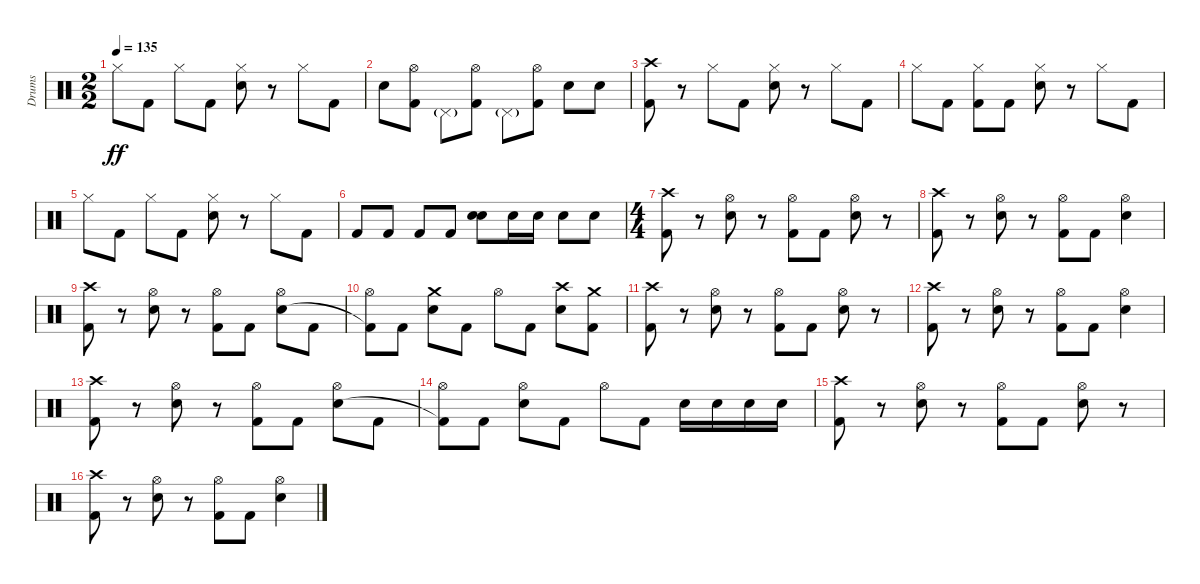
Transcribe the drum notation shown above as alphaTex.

\track ("Drums" "Drums") {instrument percussion}
\staff {score}
\articulation defaults
\ts (2 2)
\tempo 135
\clef neutral
\ks c "Hi-Hat (closed)".8{dy ff} "Kick (hit) 2".8 "Hi-Hat (closed)".8 "Kick (hit) 2".8
("Hi-Hat (closed)" "Snare (hit) 2").8 r.8 "Hi-Hat (closed)".8 "Kick (hit) 2".8 |
"Snare (hit) 2".8 ("Hi-Hat (open)" "Kick (hit) 2").8 "Pedal Hi-Hat (hit)"{g}.8 ("Hi-Hat (open)" "Kick (hit) 2").8 "Pedal Hi-Hat (hit)"{g}.8 ("Hi-Hat (open)" "Kick (hit) 2").8 "Snare (hit) 2".8 "Snare (hit) 2".8 |
("Crash high (hit)" "Kick (hit) 2").8 r.8 "Hi-Hat (closed)".8 "Kick (hit) 2".8 ("Hi-Hat (closed)" "Snare (hit) 2").8 r.8 "Hi-Hat (closed)".8 "Kick (hit) 2".8 |
"Hi-Hat (closed)".8 "Kick (hit) 2".8 ("Hi-Hat (closed)" "Kick (hit) 2").8 "Kick (hit) 2".8 ("Hi-Hat (closed)" "Snare (hit) 2").8 r.8 "Hi-Hat (closed)".8 "Kick (hit) 2".8 |
"Hi-Hat (closed)".8 "Kick (hit) 2".8 "Hi-Hat (closed)".8 "Kick (hit) 2".8 ("Hi-Hat (closed)" "Snare (hit) 2").8 r.8 "Hi-Hat (closed)".8 "Kick (hit) 2".8 |
"Kick (hit) 2".8 "Kick (hit) 2".8 "Kick (hit) 2".8 "Kick (hit) 2".8 ("Snare (hit) 2" "Snare (hit) 2").8{bd 480} "Snare (hit) 2".16 "Snare (hit) 2".16 "Snare (hit) 2".8 "Snare (hit) 2".8 |
\ts (4 4)
("Crash high (hit)" "Kick (hit) 2").8 r.8 ("Hi-Hat (open)" "Snare (hit) 2").8 r.8 ("Hi-Hat (open)" "Kick (hit) 2").8 "Kick (hit) 2".8 ("Hi-Hat (open)" "Snare (hit) 2").8 r.8 |
("Crash high (hit)" "Kick (hit) 2").8 r.8 ("Hi-Hat (open)" "Snare (hit) 2").8 r.8 ("Hi-Hat (open)" "Kick (hit) 2").8 "Kick (hit) 2".8 ("Hi-Hat (open)" "Snare (hit) 2").4 |
("Crash high (hit)" "Kick (hit) 2").8 r.8 ("Hi-Hat (open)" "Snare (hit) 2").8 r.8 ("Hi-Hat (open)" "Kick (hit) 2").8 "Kick (hit) 2".8 ("Hi-Hat (open)" "Snare (hit) 2").8 "Kick (hit) 2".8 |
("Hi-Hat (open)" "Kick (hit) 2"{t}).8 "Kick (hit) 2".8 ("Crash medium (hit)" "Snare (hit) 2").8 "Kick (hit) 2".8 "Hi-Hat (open)".8 "Kick (hit) 2".8 ("Crash high (hit)" "Snare (hit) 2").8 ("Crash medium (hit)" "Kick (hit) 2").8 |
("Crash high (hit)" "Kick (hit) 2").8 r.8 ("Hi-Hat (open)" "Snare (hit) 2").8 r.8 ("Hi-Hat (open)" "Kick (hit) 2").8 "Kick (hit) 2".8 ("Hi-Hat (open)" "Snare (hit) 2").8 r.8 |
("Crash high (hit)" "Kick (hit) 2").8 r.8 ("Hi-Hat (open)" "Snare (hit) 2").8 r.8 ("Hi-Hat (open)" "Kick (hit) 2").8 "Kick (hit) 2".8 ("Hi-Hat (open)" "Snare (hit) 2").4 |
("Crash high (hit)" "Kick (hit) 2").8 r.8 ("Hi-Hat (open)" "Snare (hit) 2").8 r.8 ("Hi-Hat (open)" "Kick (hit) 2").8 "Kick (hit) 2".8 ("Hi-Hat (open)" "Snare (hit) 2").8 "Kick (hit) 2".8 |
("Hi-Hat (open)" "Kick (hit) 2"{t}).8 "Kick (hit) 2".8 ("Hi-Hat (open)" "Snare (hit) 2").8 "Kick (hit) 2".8 "Hi-Hat (open)".8 "Kick (hit) 2".8 "Snare (hit) 2".16 "Snare (hit) 2".16 "Snare (hit) 2".16 "Snare (hit) 2".16 |
("Crash high (hit)" "Kick (hit) 2").8 r.8 ("Hi-Hat (open)" "Snare (hit) 2").8 r.8 ("Hi-Hat (open)" "Kick (hit) 2").8 "Kick (hit) 2".8 ("Hi-Hat (open)" "Snare (hit) 2").8 r.8 |
("Crash high (hit)" "Kick (hit) 2").8 r.8 ("Hi-Hat (open)" "Snare (hit) 2").8 r.8 ("Hi-Hat (open)" "Kick (hit) 2").8 "Kick (hit) 2".8 ("Hi-Hat (open)" "Snare (hit) 2").4
